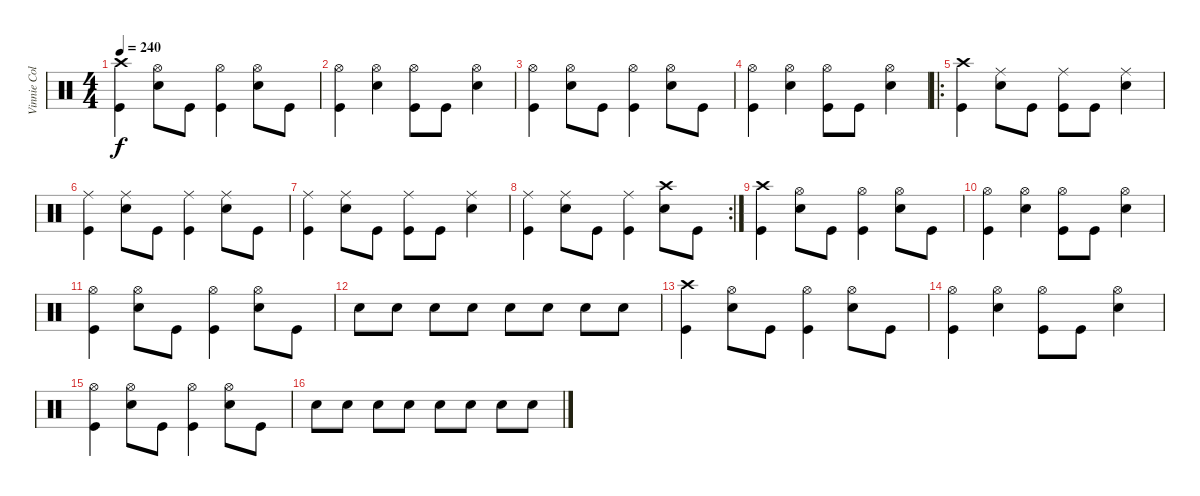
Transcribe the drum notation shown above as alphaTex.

\track ("Vinnie Colaiuta" "Vinnie Col") {instrument percussion}
\staff {score}
\articulation defaults
\ts (4 4)
\tempo 240
\clef neutral
\ks c
("Crash high (hit)" "Kick (hit)").4{dy f} ("Hi-Hat (open)" "Snare (hit) 2").8 "Kick (hit)".8 ("Hi-Hat (open)" "Kick (hit)").4 ("Hi-Hat (open)" "Snare (hit) 2").8 "Kick (hit)".8 |
("Hi-Hat (open)" "Kick (hit)").4 ("Hi-Hat (open)" "Snare (hit) 2").4 ("Hi-Hat (open)" "Kick (hit)").8 "Kick (hit)".8 ("Hi-Hat (open)" "Snare (hit) 2").4 |
("Hi-Hat (open)" "Kick (hit)").4 ("Hi-Hat (open)" "Snare (hit) 2").8 "Kick (hit)".8 ("Hi-Hat (open)" "Kick (hit)").4 ("Hi-Hat (open)" "Snare (hit) 2").8 "Kick (hit)".8 |
("Hi-Hat (open)" "Kick (hit)").4 ("Hi-Hat (open)" "Snare (hit) 2").4 ("Hi-Hat (open)" "Kick (hit)").8 "Kick (hit)".8 ("Hi-Hat (open)" "Snare (hit) 2").4 |
\ro
("Crash high (hit)" "Kick (hit)").4 ("Ride (middle)" "Snare (hit) 2").8 "Kick (hit)".8 ("Ride (middle)" "Kick (hit)").8 "Kick (hit)".8 ("Ride (middle)" "Snare (hit) 2").4 |
("Ride (middle)" "Kick (hit)").4 ("Ride (middle)" "Snare (hit) 2").8 "Kick (hit)".8 ("Ride (middle)" "Kick (hit)").4 ("Ride (middle)" "Snare (hit) 2").8 "Kick (hit)".8 |
("Ride (middle)" "Kick (hit)").4 ("Ride (middle)" "Snare (hit) 2").8 "Kick (hit)".8 ("Ride (middle)" "Kick (hit)").8 "Kick (hit)".8 ("Ride (middle)" "Snare (hit) 2").4 |
\rc 2
("Ride (middle)" "Kick (hit)").4 ("Ride (middle)" "Snare (hit) 2").8 "Kick (hit)".8 ("Ride (middle)" "Kick (hit)").4 ("Snare (hit) 2" "Crash high (hit)").8 "Kick (hit)".8 |
("Crash high (hit)" "Kick (hit)").4 ("Hi-Hat (open)" "Snare (hit) 2").8 "Kick (hit)".8 ("Hi-Hat (open)" "Kick (hit)").4 ("Hi-Hat (open)" "Snare (hit) 2").8 "Kick (hit)".8 |
("Hi-Hat (open)" "Kick (hit)").4 ("Hi-Hat (open)" "Snare (hit) 2").4 ("Hi-Hat (open)" "Kick (hit)").8 "Kick (hit)".8 ("Hi-Hat (open)" "Snare (hit) 2").4 |
("Hi-Hat (open)" "Kick (hit)").4 ("Hi-Hat (open)" "Snare (hit) 2").8 "Kick (hit)".8 ("Hi-Hat (open)" "Kick (hit)").4 ("Hi-Hat (open)" "Snare (hit) 2").8 "Kick (hit)".8 |
"Snare (hit) 2".8 "Snare (hit) 2".8 "Snare (hit) 2".8 "Snare (hit) 2".8 "Snare (hit) 2".8 "Snare (hit) 2".8 "Snare (hit) 2".8 "Snare (hit) 2".8 |
("Crash high (hit)" "Kick (hit)").4 ("Hi-Hat (open)" "Snare (hit) 2").8 "Kick (hit)".8 ("Hi-Hat (open)" "Kick (hit)").4 ("Hi-Hat (open)" "Snare (hit) 2").8 "Kick (hit)".8 |
("Hi-Hat (open)" "Kick (hit)").4 ("Hi-Hat (open)" "Snare (hit) 2").4 ("Hi-Hat (open)" "Kick (hit)").8 "Kick (hit)".8 ("Hi-Hat (open)" "Snare (hit) 2").4 |
("Hi-Hat (open)" "Kick (hit)").4 ("Hi-Hat (open)" "Snare (hit) 2").8 "Kick (hit)".8 ("Hi-Hat (open)" "Kick (hit)").4 ("Hi-Hat (open)" "Snare (hit) 2").8 "Kick (hit)".8 |
"Snare (hit) 2".8 "Snare (hit) 2".8 "Snare (hit) 2".8 "Snare (hit) 2".8 "Snare (hit) 2".8 "Snare (hit) 2".8 "Snare (hit) 2".8 "Snare (hit) 2".8
